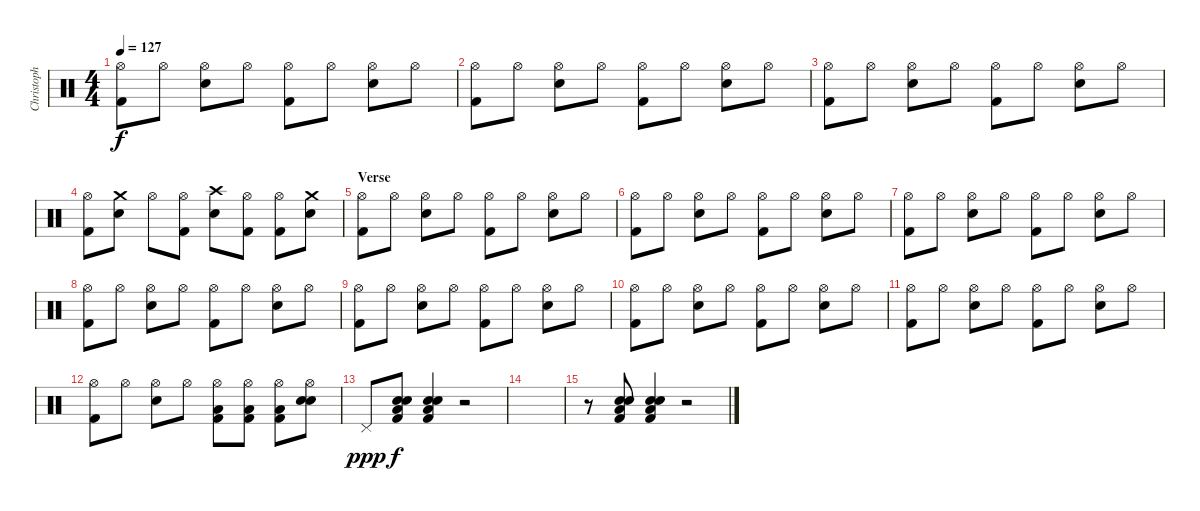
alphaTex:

\track ("Christoph Doom Schneider - Drums" "Christoph ") {instrument percussion}
\staff {score}
\articulation defaults
\ts (4 4)
\tempo 127
\clef neutral
\ks c
("Hi-Hat (open)" "Kick (hit) 2").8{dy f} "Hi-Hat (open)".8 ("Hi-Hat (open)" "Electric Snare (hit)").8 "Hi-Hat (open)".8 ("Hi-Hat (open)" "Kick (hit) 2").8 "Hi-Hat (open)".8 ("Hi-Hat (open)" "Electric Snare (hit)").8 "Hi-Hat (open)".8 |
("Hi-Hat (open)" "Kick (hit) 2").8 "Hi-Hat (open)".8 ("Hi-Hat (open)" "Electric Snare (hit)").8 "Hi-Hat (open)".8 ("Hi-Hat (open)" "Kick (hit) 2").8 "Hi-Hat (open)".8 ("Hi-Hat (open)" "Electric Snare (hit)").8 "Hi-Hat (open)".8 |
("Hi-Hat (open)" "Kick (hit) 2").8 "Hi-Hat (open)".8 ("Hi-Hat (open)" "Electric Snare (hit)").8 "Hi-Hat (open)".8 ("Hi-Hat (open)" "Kick (hit) 2").8 "Hi-Hat (open)".8 ("Hi-Hat (open)" "Electric Snare (hit)").8 "Hi-Hat (open)".8 |
("Hi-Hat (open)" "Kick (hit) 2").8 ("Crash medium (hit)" "Electric Snare (hit)").8 "Hi-Hat (open)".8 ("Hi-Hat (open)" "Kick (hit) 2").8 ("Crash high (hit)" "Electric Snare (hit)").8 ("Hi-Hat (open)" "Kick (hit) 2").8 ("Hi-Hat (open)" "Kick (hit) 2").8 ("Crash medium (hit)" "Electric Snare (hit)").8 |
\section ("" "Verse")
("Hi-Hat (open)" "Kick (hit) 2").8 "Hi-Hat (open)".8 ("Hi-Hat (open)" "Electric Snare (hit)").8 "Hi-Hat (open)".8 ("Hi-Hat (open)" "Kick (hit) 2").8 "Hi-Hat (open)".8 ("Hi-Hat (open)" "Electric Snare (hit)").8 "Hi-Hat (open)".8 |
("Hi-Hat (open)" "Kick (hit) 2").8 "Hi-Hat (open)".8 ("Hi-Hat (open)" "Electric Snare (hit)").8 "Hi-Hat (open)".8 ("Hi-Hat (open)" "Kick (hit) 2").8 "Hi-Hat (open)".8 ("Hi-Hat (open)" "Electric Snare (hit)").8 "Hi-Hat (open)".8 |
("Hi-Hat (open)" "Kick (hit) 2").8 "Hi-Hat (open)".8 ("Hi-Hat (open)" "Electric Snare (hit)").8 "Hi-Hat (open)".8 ("Hi-Hat (open)" "Kick (hit) 2").8 "Hi-Hat (open)".8 ("Hi-Hat (open)" "Electric Snare (hit)").8 "Hi-Hat (open)".8 |
("Hi-Hat (open)" "Kick (hit) 2").8 "Hi-Hat (open)".8 ("Hi-Hat (open)" "Electric Snare (hit)").8 "Hi-Hat (open)".8 ("Hi-Hat (open)" "Kick (hit) 2").8 "Hi-Hat (open)".8 ("Hi-Hat (open)" "Electric Snare (hit)").8 "Hi-Hat (open)".8 |
("Hi-Hat (open)" "Kick (hit) 2").8 "Hi-Hat (open)".8 ("Hi-Hat (open)" "Electric Snare (hit)").8 "Hi-Hat (open)".8 ("Hi-Hat (open)" "Kick (hit) 2").8 "Hi-Hat (open)".8 ("Hi-Hat (open)" "Electric Snare (hit)").8 "Hi-Hat (open)".8 |
("Hi-Hat (open)" "Kick (hit) 2").8 "Hi-Hat (open)".8 ("Hi-Hat (open)" "Electric Snare (hit)").8 "Hi-Hat (open)".8 ("Hi-Hat (open)" "Kick (hit) 2").8 "Hi-Hat (open)".8 ("Hi-Hat (open)" "Electric Snare (hit)").8 "Hi-Hat (open)".8 |
("Hi-Hat (open)" "Kick (hit) 2").8 "Hi-Hat (open)".8 ("Hi-Hat (open)" "Electric Snare (hit)").8 "Hi-Hat (open)".8 ("Hi-Hat (open)" "Kick (hit) 2").8 "Hi-Hat (open)".8 ("Hi-Hat (open)" "Electric Snare (hit)").8 "Hi-Hat (open)".8 |
("Hi-Hat (open)" "Kick (hit) 2").8 "Hi-Hat (open)".8 ("Hi-Hat (open)" "Electric Snare (hit)").8 "Hi-Hat (open)".8 ("Hi-Hat (open)" "Low Floor Tom (hit)" "Kick (hit) 2").8 ("Hi-Hat (open)" "Low Floor Tom (hit)" "Kick (hit) 2").8 ("Hi-Hat (open)" "Low Floor Tom (hit)" "Kick (hit) 2").8 ("Hi-Hat (open)" "Electric Snare (hit)" "Electric Snare (hit)").8 |
"Pedal Hi-Hat (hit)".8{dy ppp} ("Electric Snare (hit)" "Kick (hit) 2" "Low Floor Tom (hit)" "Electric Snare (hit)").8{dy f} ("Electric Snare (hit)" "Kick (hit) 2" "Low Floor Tom (hit)" "Electric Snare (hit)").4 r.2 |
|
r.8 ("Electric Snare (hit)" "Kick (hit) 2" "Low Floor Tom (hit)" "Electric Snare (hit)").8 ("Electric Snare (hit)" "Kick (hit) 2" "Low Floor Tom (hit)" "Electric Snare (hit)").4 r.2
